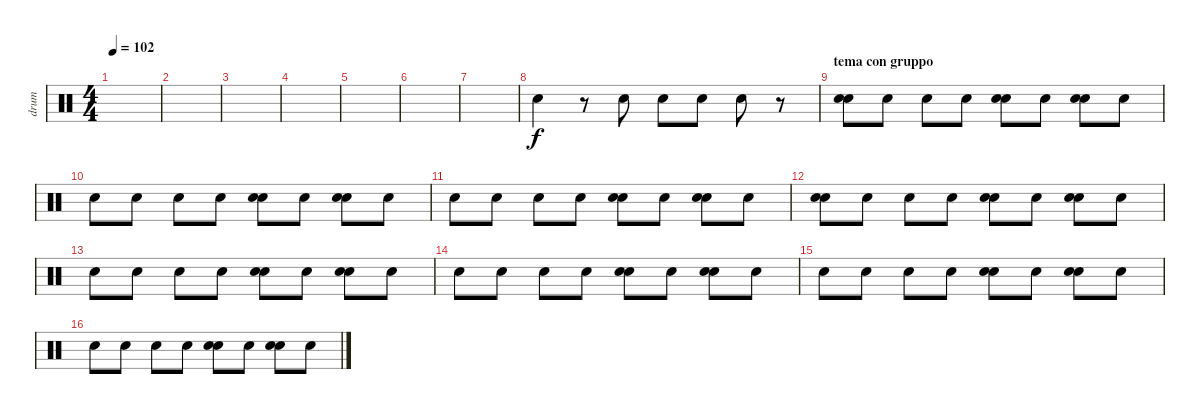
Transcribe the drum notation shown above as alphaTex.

\track ("drum" "drum") {instrument percussion}
\staff {score}
\articulation defaults
\ts (4 4)
\tempo 102
\clef neutral
\ks c
|
|
|
|
|
|
|
"Snare (hit) 2".4 r.8 "Snare (hit) 2".8 "Snare (hit) 2".8 "Snare (hit) 2".8 "Snare (hit) 2".8 r.8 |
\section ("" "tema con gruppo")
("Snare (hit) 2" "Electric Snare (hit)").8 "Electric Snare (hit)".8 "Electric Snare (hit)".8 "Electric Snare (hit)".8 ("Snare (hit) 2" "Electric Snare (hit)").8 "Electric Snare (hit)".8 ("Snare (hit) 2" "Electric Snare (hit)").8 "Electric Snare (hit)".8 |
"Electric Snare (hit)".8 "Electric Snare (hit)".8 "Electric Snare (hit)".8 "Electric Snare (hit)".8 ("Snare (hit) 2" "Electric Snare (hit)").8 "Electric Snare (hit)".8 ("Snare (hit) 2" "Electric Snare (hit)").8 "Electric Snare (hit)".8 |
"Electric Snare (hit)".8 "Electric Snare (hit)".8 "Electric Snare (hit)".8 "Electric Snare (hit)".8 ("Snare (hit) 2" "Electric Snare (hit)").8 "Electric Snare (hit)".8 ("Snare (hit) 2" "Electric Snare (hit)").8 "Electric Snare (hit)".8 |
("Snare (hit) 2" "Electric Snare (hit)").8 "Electric Snare (hit)".8 "Electric Snare (hit)".8 "Electric Snare (hit)".8 ("Snare (hit) 2" "Electric Snare (hit)").8 "Electric Snare (hit)".8 ("Snare (hit) 2" "Electric Snare (hit)").8 "Electric Snare (hit)".8 |
"Electric Snare (hit)".8 "Electric Snare (hit)".8 "Electric Snare (hit)".8 "Electric Snare (hit)".8 ("Snare (hit) 2" "Electric Snare (hit)").8 "Electric Snare (hit)".8 ("Snare (hit) 2" "Electric Snare (hit)").8 "Electric Snare (hit)".8 |
"Electric Snare (hit)".8 "Electric Snare (hit)".8 "Electric Snare (hit)".8 "Electric Snare (hit)".8 ("Snare (hit) 2" "Electric Snare (hit)").8 "Electric Snare (hit)".8 ("Snare (hit) 2" "Electric Snare (hit)").8 "Electric Snare (hit)".8 |
"Electric Snare (hit)".8 "Electric Snare (hit)".8 "Electric Snare (hit)".8 "Electric Snare (hit)".8 ("Snare (hit) 2" "Electric Snare (hit)").8 "Electric Snare (hit)".8 ("Snare (hit) 2" "Electric Snare (hit)").8 "Electric Snare (hit)".8 |
"Electric Snare (hit)".8 "Electric Snare (hit)".8 "Electric Snare (hit)".8 "Electric Snare (hit)".8 ("Snare (hit) 2" "Electric Snare (hit)").8 "Electric Snare (hit)".8 ("Snare (hit) 2" "Electric Snare (hit)").8 "Electric Snare (hit)".8
